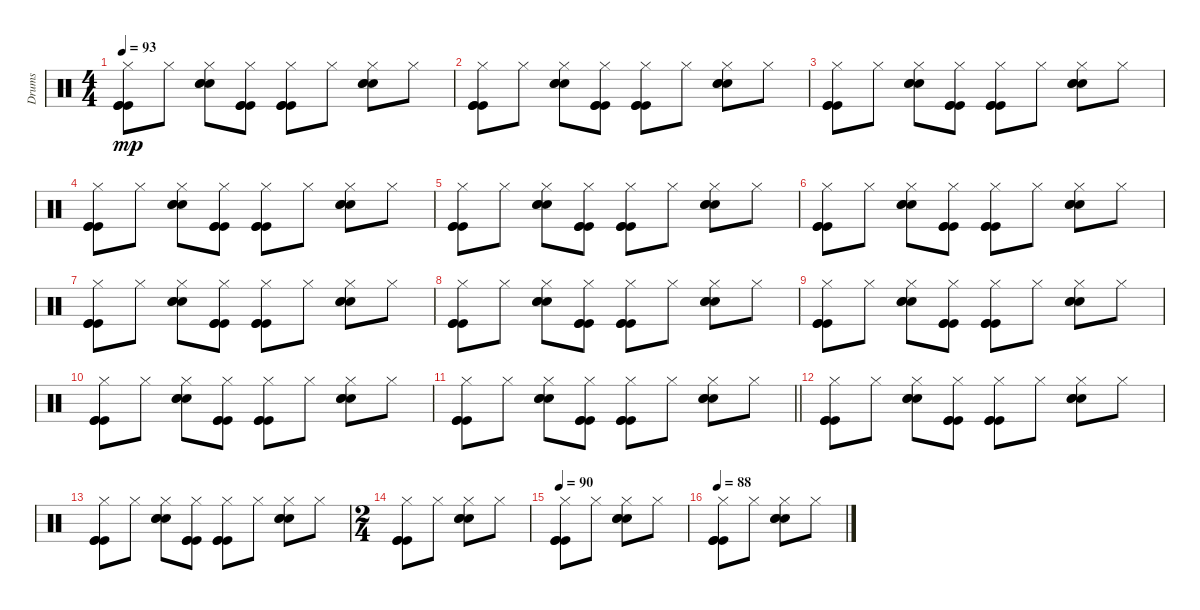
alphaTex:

\track ("Drums" "Drums") {instrument percussion}
\staff {score}
\articulation defaults
\ts (4 4)
\tempo 93
\clef neutral
\ks c
("Kick (hit)" "Kick (hit)" "Kick (hit)" "Hi-Hat (closed)").8{dy mp} "Hi-Hat (closed)".8 ("Snare (hit) 2" "Snare (hit) 2" "Snare (hit) 2" "Hi-Hat (closed)").8 ("Kick (hit)" "Kick (hit)" "Kick (hit)" "Hi-Hat (closed)").8 ("Kick (hit)" "Kick (hit)" "Kick (hit)" "Hi-Hat (closed)").8 "Hi-Hat (closed)".8 ("Snare (hit) 2" "Snare (hit) 2" "Snare (hit) 2" "Hi-Hat (closed)").8 "Hi-Hat (closed)".8 |
("Kick (hit)" "Kick (hit)" "Kick (hit)" "Hi-Hat (closed)").8 "Hi-Hat (closed)".8 ("Snare (hit) 2" "Snare (hit) 2" "Snare (hit) 2" "Hi-Hat (closed)").8 ("Kick (hit)" "Kick (hit)" "Kick (hit)" "Hi-Hat (closed)").8 ("Kick (hit)" "Kick (hit)" "Kick (hit)" "Hi-Hat (closed)").8 "Hi-Hat (closed)".8 ("Snare (hit) 2" "Snare (hit) 2" "Snare (hit) 2" "Hi-Hat (closed)").8 "Hi-Hat (closed)".8 |
("Kick (hit)" "Kick (hit)" "Kick (hit)" "Hi-Hat (closed)").8 "Hi-Hat (closed)".8 ("Snare (hit) 2" "Snare (hit) 2" "Snare (hit) 2" "Hi-Hat (closed)").8 ("Kick (hit)" "Kick (hit)" "Kick (hit)" "Hi-Hat (closed)").8 ("Kick (hit)" "Kick (hit)" "Kick (hit)" "Hi-Hat (closed)").8 "Hi-Hat (closed)".8 ("Snare (hit) 2" "Snare (hit) 2" "Snare (hit) 2" "Hi-Hat (closed)").8 "Hi-Hat (closed)".8 |
("Kick (hit)" "Kick (hit)" "Kick (hit)" "Hi-Hat (closed)").8 "Hi-Hat (closed)".8 ("Snare (hit) 2" "Snare (hit) 2" "Snare (hit) 2" "Hi-Hat (closed)").8 ("Kick (hit)" "Kick (hit)" "Kick (hit)" "Hi-Hat (closed)").8 ("Kick (hit)" "Kick (hit)" "Kick (hit)" "Hi-Hat (closed)").8 "Hi-Hat (closed)".8 ("Snare (hit) 2" "Snare (hit) 2" "Snare (hit) 2" "Hi-Hat (closed)").8 "Hi-Hat (closed)".8 |
("Kick (hit)" "Kick (hit)" "Kick (hit)" "Hi-Hat (closed)").8 "Hi-Hat (closed)".8 ("Snare (hit) 2" "Snare (hit) 2" "Snare (hit) 2" "Hi-Hat (closed)").8 ("Kick (hit)" "Kick (hit)" "Kick (hit)" "Hi-Hat (closed)").8 ("Kick (hit)" "Kick (hit)" "Kick (hit)" "Hi-Hat (closed)").8 "Hi-Hat (closed)".8 ("Snare (hit) 2" "Snare (hit) 2" "Snare (hit) 2" "Hi-Hat (closed)").8 "Hi-Hat (closed)".8 |
("Kick (hit)" "Kick (hit)" "Kick (hit)" "Hi-Hat (closed)").8 "Hi-Hat (closed)".8 ("Snare (hit) 2" "Snare (hit) 2" "Snare (hit) 2" "Hi-Hat (closed)").8 ("Kick (hit)" "Kick (hit)" "Kick (hit)" "Hi-Hat (closed)").8 ("Kick (hit)" "Kick (hit)" "Kick (hit)" "Hi-Hat (closed)").8 "Hi-Hat (closed)".8 ("Snare (hit) 2" "Snare (hit) 2" "Snare (hit) 2" "Hi-Hat (closed)").8 "Hi-Hat (closed)".8 |
("Kick (hit)" "Kick (hit)" "Kick (hit)" "Hi-Hat (closed)").8 "Hi-Hat (closed)".8 ("Snare (hit) 2" "Snare (hit) 2" "Snare (hit) 2" "Hi-Hat (closed)").8 ("Kick (hit)" "Kick (hit)" "Kick (hit)" "Hi-Hat (closed)").8 ("Kick (hit)" "Kick (hit)" "Kick (hit)" "Hi-Hat (closed)").8 "Hi-Hat (closed)".8 ("Snare (hit) 2" "Snare (hit) 2" "Snare (hit) 2" "Hi-Hat (closed)").8 "Hi-Hat (closed)".8 |
("Kick (hit)" "Kick (hit)" "Kick (hit)" "Hi-Hat (closed)").8 "Hi-Hat (closed)".8 ("Snare (hit) 2" "Snare (hit) 2" "Snare (hit) 2" "Hi-Hat (closed)").8 ("Kick (hit)" "Kick (hit)" "Kick (hit)" "Hi-Hat (closed)").8 ("Kick (hit)" "Kick (hit)" "Kick (hit)" "Hi-Hat (closed)").8 "Hi-Hat (closed)".8 ("Snare (hit) 2" "Snare (hit) 2" "Snare (hit) 2" "Hi-Hat (closed)").8 "Hi-Hat (closed)".8 |
("Kick (hit)" "Kick (hit)" "Kick (hit)" "Hi-Hat (closed)").8 "Hi-Hat (closed)".8 ("Snare (hit) 2" "Snare (hit) 2" "Snare (hit) 2" "Hi-Hat (closed)").8 ("Kick (hit)" "Kick (hit)" "Kick (hit)" "Hi-Hat (closed)").8 ("Kick (hit)" "Kick (hit)" "Kick (hit)" "Hi-Hat (closed)").8 "Hi-Hat (closed)".8 ("Snare (hit) 2" "Snare (hit) 2" "Snare (hit) 2" "Hi-Hat (closed)").8 "Hi-Hat (closed)".8 |
("Kick (hit)" "Kick (hit)" "Kick (hit)" "Hi-Hat (closed)").8 "Hi-Hat (closed)".8 ("Snare (hit) 2" "Snare (hit) 2" "Snare (hit) 2" "Hi-Hat (closed)").8 ("Kick (hit)" "Kick (hit)" "Kick (hit)" "Hi-Hat (closed)").8 ("Kick (hit)" "Kick (hit)" "Kick (hit)" "Hi-Hat (closed)").8 "Hi-Hat (closed)".8 ("Snare (hit) 2" "Snare (hit) 2" "Snare (hit) 2" "Hi-Hat (closed)").8 "Hi-Hat (closed)".8 |
\barLineRight lightlight
("Kick (hit)" "Kick (hit)" "Kick (hit)" "Hi-Hat (closed)").8 "Hi-Hat (closed)".8 ("Snare (hit) 2" "Snare (hit) 2" "Snare (hit) 2" "Hi-Hat (closed)").8 ("Kick (hit)" "Kick (hit)" "Kick (hit)" "Hi-Hat (closed)").8 ("Kick (hit)" "Kick (hit)" "Kick (hit)" "Hi-Hat (closed)").8 "Hi-Hat (closed)".8 ("Snare (hit) 2" "Snare (hit) 2" "Snare (hit) 2" "Hi-Hat (closed)").8 "Hi-Hat (closed)".8{volume 7} |
("Kick (hit)" "Kick (hit)" "Kick (hit)" "Hi-Hat (closed)").8 "Hi-Hat (closed)".8 ("Snare (hit) 2" "Snare (hit) 2" "Snare (hit) 2" "Hi-Hat (closed)").8 ("Kick (hit)" "Kick (hit)" "Kick (hit)" "Hi-Hat (closed)").8 ("Kick (hit)" "Kick (hit)" "Kick (hit)" "Hi-Hat (closed)").8 "Hi-Hat (closed)".8 ("Snare (hit) 2" "Snare (hit) 2" "Snare (hit) 2" "Hi-Hat (closed)").8 "Hi-Hat (closed)".8{volume 3} |
("Kick (hit)" "Kick (hit)" "Kick (hit)" "Hi-Hat (closed)").8 "Hi-Hat (closed)".8 ("Snare (hit) 2" "Snare (hit) 2" "Snare (hit) 2" "Hi-Hat (closed)").8 ("Kick (hit)" "Kick (hit)" "Kick (hit)" "Hi-Hat (closed)").8 ("Kick (hit)" "Kick (hit)" "Kick (hit)" "Hi-Hat (closed)").8 "Hi-Hat (closed)".8 ("Snare (hit) 2" "Snare (hit) 2" "Snare (hit) 2" "Hi-Hat (closed)").8 "Hi-Hat (closed)".8 |
\ts (2 4)
("Kick (hit)" "Kick (hit)" "Kick (hit)" "Hi-Hat (closed)").8{volume 10} "Hi-Hat (closed)".8 ("Snare (hit) 2" "Snare (hit) 2" "Snare (hit) 2" "Hi-Hat (closed)").8 "Hi-Hat (closed)".8 |
\tempo 90
("Kick (hit)" "Kick (hit)" "Kick (hit)" "Hi-Hat (closed)").8 "Hi-Hat (closed)".8 ("Snare (hit) 2" "Snare (hit) 2" "Snare (hit) 2" "Hi-Hat (closed)").8 "Hi-Hat (closed)".8 |
\tempo 88
("Kick (hit)" "Kick (hit)" "Kick (hit)" "Hi-Hat (closed)").8 "Hi-Hat (closed)".8 ("Snare (hit) 2" "Snare (hit) 2" "Snare (hit) 2" "Hi-Hat (closed)").8 "Hi-Hat (closed)".8
